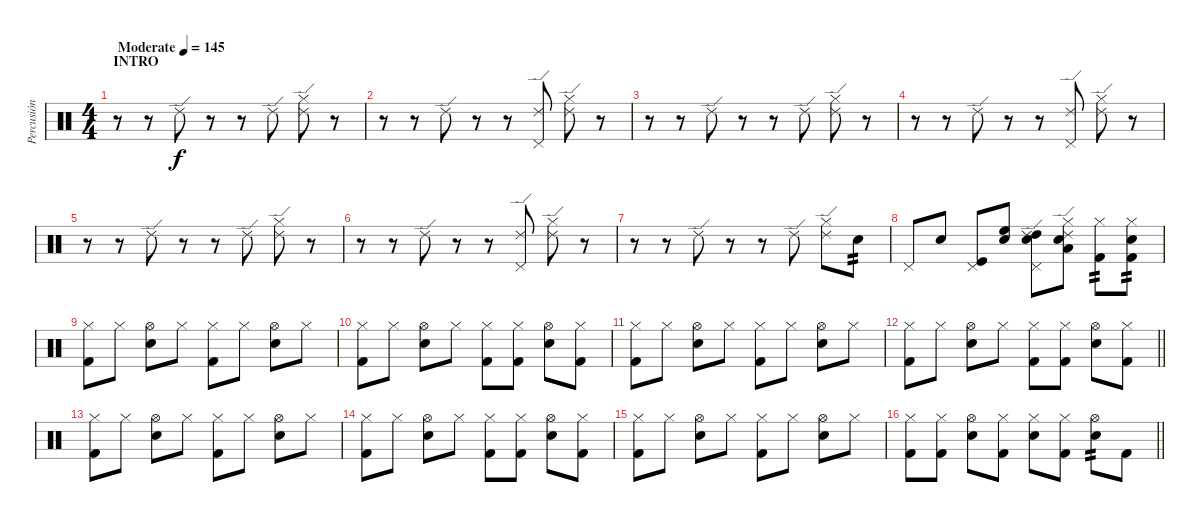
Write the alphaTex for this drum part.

\track ("Percusión" "Percusión") {instrument percussion}
\staff {score}
\articulation defaults
\ts (4 4)
\section ("" "INTRO")
\tempo (145 "Moderate")
\clef neutral
\ks c
r.8{dy f} r.8 "Ride (edge) 2".8 r.8 r.8 "Ride (edge) 2".8 ("Ride (edge) 2" "Hi-Hat (closed)").8 r.8 |
r.8 r.8 "Ride (edge) 2".8 r.8 r.8 ("Ride (edge) 2" "Pedal Hi-Hat (hit)").8 ("Ride (edge) 2" "Hi-Hat (closed)").8 r.8 |
r.8 r.8 "Ride (edge) 2".8 r.8 r.8 "Ride (edge) 2".8 ("Ride (edge) 2" "Hi-Hat (closed)").8 r.8 |
r.8 r.8 "Ride (edge) 2".8 r.8 r.8 ("Ride (edge) 2" "Pedal Hi-Hat (hit)").8 ("Ride (edge) 2" "Hi-Hat (closed)").8 r.8 |
r.8 r.8 "Ride (edge) 2".8 r.8 r.8 "Ride (edge) 2".8 ("Ride (edge) 2" "Hi-Hat (closed)").8 r.8 |
r.8 r.8 "Ride (edge) 2".8 r.8 r.8 ("Ride (edge) 2" "Pedal Hi-Hat (hit)").8 ("Ride (edge) 2" "Hi-Hat (closed)").8 r.8 |
r.8 r.8 "Ride (edge) 2".8 r.8 r.8 "Ride (edge) 2".8 ("Ride (edge) 2" "Hi-Hat (closed)").8 "Snare (hit) 2".8{tp 2} |
"Pedal Hi-Hat (hit)".8 "Snare (hit) 2".8 ("Pedal Hi-Hat (hit)" "Kick (hit)").8 ("High Floor Tom (hit)" "Snare (hit) 2").8 ("High Tom (hit)" "Ride (edge) 2" "Snare (hit) 2" "Pedal Hi-Hat (hit)").8 ("Low Tom (hit)" "Ride (edge) 2" "Snare (hit) 2" "Hi-Hat (closed)").8 ("Hi-Hat (closed)" "Kick (hit) 2").8{tp 2} ("Hi-Hat (closed)" "Snare (hit) 2" "Kick (hit) 2").8{tp 2} |
("Hi-Hat (closed)" "Kick (hit) 2").8 "Hi-Hat (closed)".8 ("Hi-Hat (open)" "Snare (hit) 2").8 "Hi-Hat (closed)".8 ("Hi-Hat (closed)" "Kick (hit) 2").8 "Hi-Hat (closed)".8 ("Hi-Hat (open)" "Snare (hit) 2").8 "Hi-Hat (closed)".8 |
("Hi-Hat (closed)" "Kick (hit) 2").8 "Hi-Hat (closed)".8 ("Hi-Hat (open)" "Snare (hit) 2").8 "Hi-Hat (closed)".8 ("Hi-Hat (closed)" "Kick (hit) 2").8 ("Hi-Hat (closed)" "Kick (hit) 2").8 ("Hi-Hat (open)" "Snare (hit) 2").8 ("Hi-Hat (closed)" "Kick (hit) 2").8 |
("Hi-Hat (closed)" "Kick (hit) 2").8 "Hi-Hat (closed)".8 ("Hi-Hat (open)" "Snare (hit) 2").8 "Hi-Hat (closed)".8 ("Hi-Hat (closed)" "Kick (hit) 2").8 "Hi-Hat (closed)".8 ("Hi-Hat (open)" "Snare (hit) 2").8 "Hi-Hat (closed)".8 |
\barLineRight lightlight
("Hi-Hat (closed)" "Kick (hit) 2").8 "Hi-Hat (closed)".8 ("Hi-Hat (open)" "Snare (hit) 2").8 "Hi-Hat (closed)".8 ("Hi-Hat (closed)" "Kick (hit) 2").8 ("Hi-Hat (closed)" "Kick (hit) 2").8 ("Hi-Hat (open)" "Snare (hit) 2").8 ("Hi-Hat (closed)" "Kick (hit) 2").8 |
("Hi-Hat (closed)" "Kick (hit) 2").8 "Hi-Hat (closed)".8 ("Hi-Hat (open)" "Snare (hit) 2").8 "Hi-Hat (closed)".8 ("Hi-Hat (closed)" "Kick (hit) 2").8 "Hi-Hat (closed)".8 ("Hi-Hat (open)" "Snare (hit) 2").8 "Hi-Hat (closed)".8 |
("Hi-Hat (closed)" "Kick (hit) 2").8 "Hi-Hat (closed)".8 ("Hi-Hat (open)" "Snare (hit) 2").8 "Hi-Hat (closed)".8 ("Hi-Hat (closed)" "Kick (hit) 2").8 ("Hi-Hat (closed)" "Kick (hit) 2").8 ("Hi-Hat (open)" "Snare (hit) 2").8 ("Hi-Hat (closed)" "Kick (hit) 2").8 |
("Hi-Hat (closed)" "Kick (hit) 2").8 "Hi-Hat (closed)".8 ("Hi-Hat (open)" "Snare (hit) 2").8 "Hi-Hat (closed)".8 ("Hi-Hat (closed)" "Kick (hit) 2").8 "Hi-Hat (closed)".8 ("Hi-Hat (open)" "Snare (hit) 2").8 "Hi-Hat (closed)".8 |
\barLineRight lightlight
("Hi-Hat (closed)" "Kick (hit) 2").8 ("Hi-Hat (closed)" "Kick (hit) 2").8 ("Hi-Hat (open)" "Snare (hit) 2").8 ("Hi-Hat (closed)" "Kick (hit) 2").8 ("Hi-Hat (closed)" "Snare (hit) 2").8 ("Hi-Hat (closed)" "Kick (hit) 2").8 ("Hi-Hat (open)" "Snare (hit) 2").8{tp 2} "Kick (hit) 2".8
